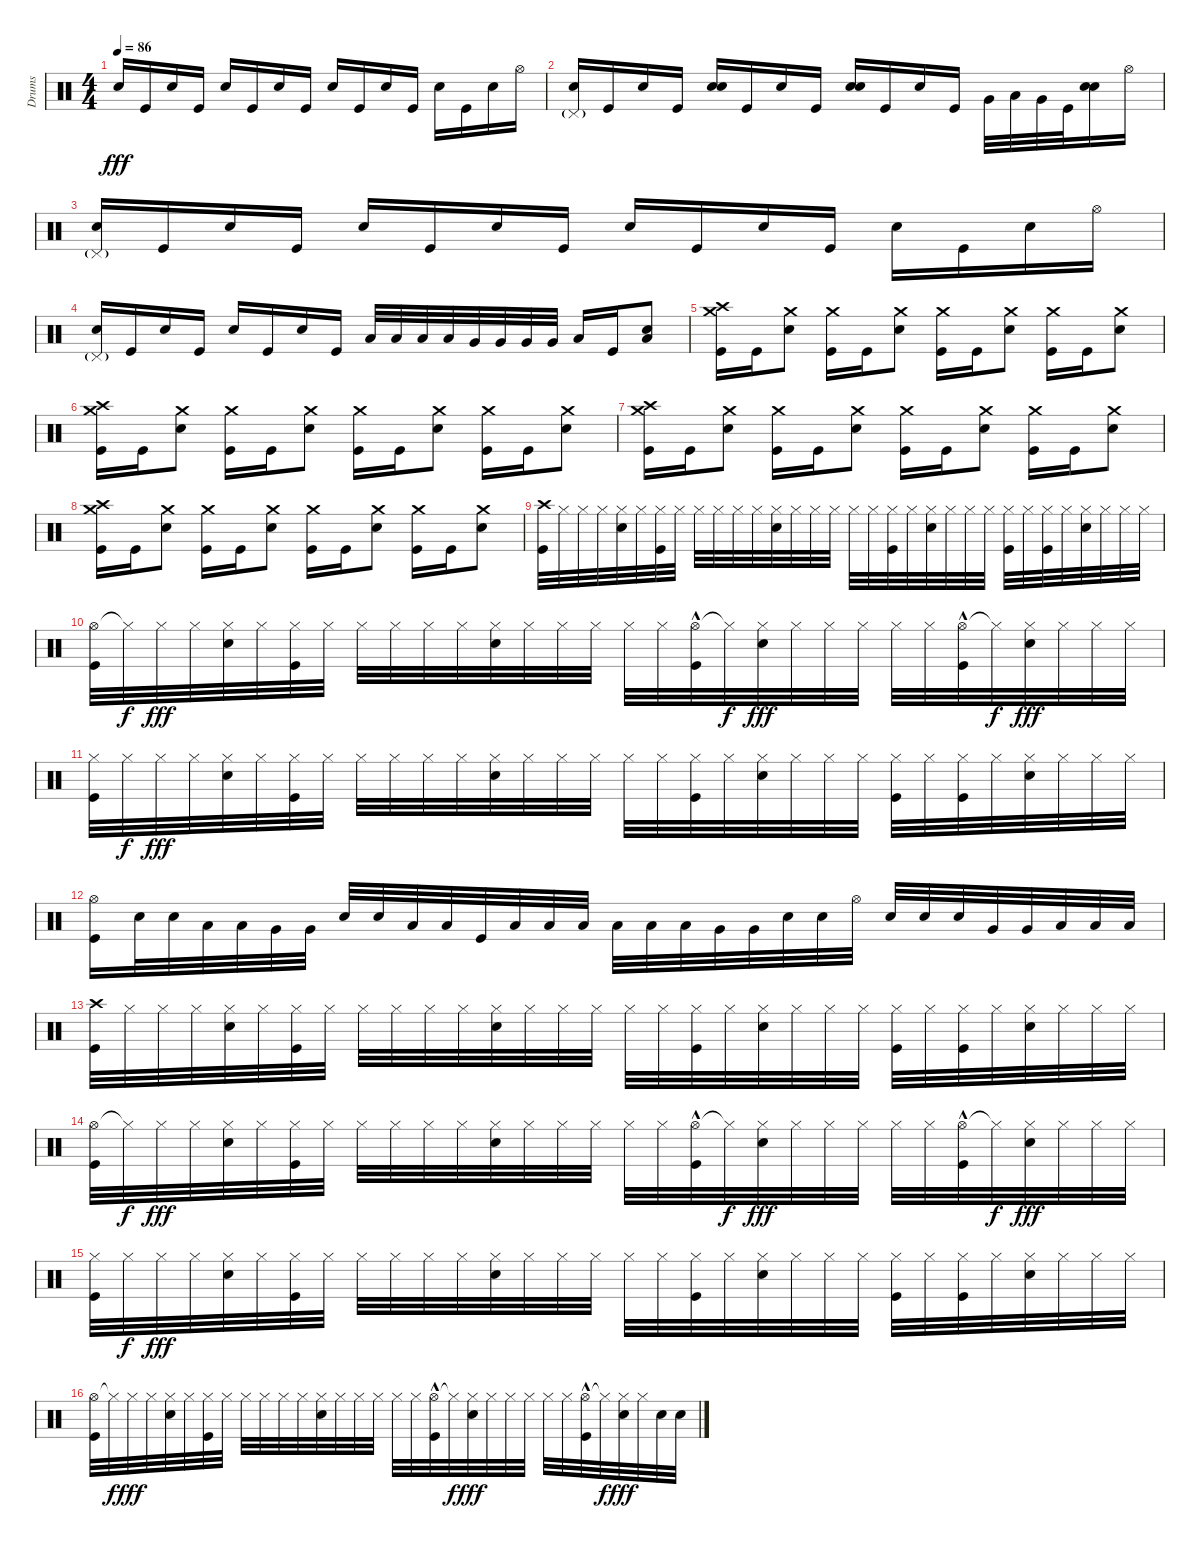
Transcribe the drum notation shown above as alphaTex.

\track ("Drums" "Drums") {instrument percussion}
\staff {score}
\articulation defaults
\ts (4 4)
\tempo 86
\clef neutral
\ks c "Electric Snare (hit)".16{dy fff} "Kick (hit)".16 "Electric Snare (hit)".16 "Kick (hit)".16 "Electric Snare (hit)".16 "Kick (hit)".16 "Electric Snare (hit)".16 "Kick (hit)".16 "Electric Snare (hit)".16 "Kick (hit)".16 "Electric Snare (hit)".16 "Kick (hit)".16 "Electric Snare (hit)".16 "Kick (hit)".16 "Electric Snare (hit)".16 "Hi-Hat (open)".16
|
("Pedal Hi-Hat (hit)"{g} "Electric Snare (hit)").16 "Kick (hit)".16 "Electric Snare (hit)".16 "Kick (hit)".16 ("Electric Snare (hit)" "Electric Snare (hit)").16 "Kick (hit)".16 "Electric Snare (hit)".16 "Kick (hit)".16 ("Electric Snare (hit)" "Electric Snare (hit)").16 "Kick (hit)".16 "Electric Snare (hit)".16 "Kick (hit)".16 "Very Low Tom (hit)".32 "Low Tom (hit)".32 "Very Low Tom (hit)".32 "Kick (hit)".32 ("Electric Snare (hit)" "Electric Snare (hit)").16 "Hi-Hat (open)".16 |
("Pedal Hi-Hat (hit)"{g} "Electric Snare (hit)").16 "Kick (hit)".16 "Electric Snare (hit)".16 "Kick (hit)".16 "Electric Snare (hit)".16 "Kick (hit)".16 "Electric Snare (hit)".16 "Kick (hit)".16 "Electric Snare (hit)".16 "Kick (hit)".16 "Electric Snare (hit)".16 "Kick (hit)".16 "Electric Snare (hit)".16 "Kick (hit)".16 "Electric Snare (hit)".16 "Hi-Hat (open)".16 |
("Pedal Hi-Hat (hit)"{g} "Electric Snare (hit)").16 "Kick (hit)".16 "Electric Snare (hit)".16 "Kick (hit)".16 "Electric Snare (hit)".16 "Kick (hit)".16 "Electric Snare (hit)".16 "Kick (hit)".16 "Low Tom (hit)".32 "Low Tom (hit)".32 "Low Tom (hit)".32 "Low Tom (hit)".32 "Very Low Tom (hit)".32 "Very Low Tom (hit)".32 "Very Low Tom (hit)".32 "Very Low Tom (hit)".32 "Low Floor Tom (hit)".16 "Kick (hit)".16 ("Low Floor Tom (hit)" "Electric Snare (hit)").8 |
("Crash high (hit)" "Crash medium (hit)" "Kick (hit)").16 "Kick (hit)".16 ("Crash medium (hit)" "Electric Snare (hit)").8 ("Crash medium (hit)" "Kick (hit)").16 "Kick (hit)".16 ("Crash medium (hit)" "Electric Snare (hit)").8 ("Crash medium (hit)" "Kick (hit)").16 "Kick (hit)".16 ("Crash medium (hit)" "Electric Snare (hit)").8 ("Crash medium (hit)" "Kick (hit)").16 "Kick (hit)".16 ("Crash medium (hit)" "Electric Snare (hit)").8 |
("Crash high (hit)" "Crash medium (hit)" "Kick (hit)").16 "Kick (hit)".16 ("Crash medium (hit)" "Electric Snare (hit)").8 ("Crash medium (hit)" "Kick (hit)").16 "Kick (hit)".16 ("Crash medium (hit)" "Electric Snare (hit)").8 ("Crash medium (hit)" "Kick (hit)").16 "Kick (hit)".16 ("Crash medium (hit)" "Electric Snare (hit)").8 ("Crash medium (hit)" "Kick (hit)").16 "Kick (hit)".16 ("Crash medium (hit)" "Electric Snare (hit)").8 |
("Crash high (hit)" "Crash medium (hit)" "Kick (hit)").16 "Kick (hit)".16 ("Crash medium (hit)" "Electric Snare (hit)").8 ("Crash medium (hit)" "Kick (hit)").16 "Kick (hit)".16 ("Crash medium (hit)" "Electric Snare (hit)").8 ("Crash medium (hit)" "Kick (hit)").16 "Kick (hit)".16 ("Crash medium (hit)" "Electric Snare (hit)").8 ("Crash medium (hit)" "Kick (hit)").16 "Kick (hit)".16 ("Crash medium (hit)" "Electric Snare (hit)").8 |
("Crash high (hit)" "Crash medium (hit)" "Kick (hit)").16 "Kick (hit)".16 ("Crash medium (hit)" "Electric Snare (hit)").8 ("Crash medium (hit)" "Kick (hit)").16 "Kick (hit)".16 ("Crash medium (hit)" "Electric Snare (hit)").8 ("Crash medium (hit)" "Kick (hit)").16 "Kick (hit)".16 ("Crash medium (hit)" "Electric Snare (hit)").8 ("Crash medium (hit)" "Kick (hit)").16 "Kick (hit)".16 ("Crash medium (hit)" "Electric Snare (hit)").8 |
("Crash high (hit)" "Kick (hit)").32 "Hi-Hat (closed)".32 "Hi-Hat (closed)".32 "Hi-Hat (closed)".32 ("Hi-Hat (closed)" "Electric Snare (hit)").32 "Hi-Hat (closed)".32 ("Hi-Hat (closed)" "Kick (hit)").32 "Hi-Hat (closed)".32 "Hi-Hat (closed)".32 "Hi-Hat (closed)".32 "Hi-Hat (closed)".32 "Hi-Hat (closed)".32 ("Hi-Hat (closed)" "Electric Snare (hit)").32 "Hi-Hat (closed)".32 "Hi-Hat (closed)".32 "Hi-Hat (closed)".32 "Hi-Hat (closed)".32 "Hi-Hat (closed)".32 ("Hi-Hat (closed)" "Kick (hit)").32 "Hi-Hat (closed)".32 ("Hi-Hat (closed)" "Electric Snare (hit)").32 "Hi-Hat (closed)".32 "Hi-Hat (closed)".32 "Hi-Hat (closed)".32 ("Hi-Hat (closed)" "Kick (hit)").32 "Hi-Hat (closed)".32 ("Hi-Hat (closed)" "Kick (hit)").32 "Hi-Hat (closed)".32 ("Hi-Hat (closed)" "Electric Snare (hit)").32 "Hi-Hat (closed)".32 "Hi-Hat (closed)".32 "Hi-Hat (closed)".32 |
("Hi-Hat (open)" "Kick (hit)").32 "Hi-Hat (closed)"{t}.32{dy f} "Hi-Hat (closed)".32{dy fff} "Hi-Hat (closed)".32 ("Hi-Hat (closed)" "Electric Snare (hit)").32 "Hi-Hat (closed)".32 ("Hi-Hat (closed)" "Kick (hit)").32 "Hi-Hat (closed)".32 "Hi-Hat (closed)".32 "Hi-Hat (closed)".32 "Hi-Hat (closed)".32 "Hi-Hat (closed)".32 ("Hi-Hat (closed)" "Electric Snare (hit)").32 "Hi-Hat (closed)".32 "Hi-Hat (closed)".32 "Hi-Hat (closed)".32 "Hi-Hat (closed)".32 "Hi-Hat (closed)".32 ("Hi-Hat (open)"{hac} "Kick (hit)").32 "Hi-Hat (closed)"{t}.32{dy f} ("Hi-Hat (closed)" "Electric Snare (hit)").32{dy fff} "Hi-Hat (closed)".32 "Hi-Hat (closed)".32 "Hi-Hat (closed)".32 "Hi-Hat (closed)".32 "Hi-Hat (closed)".32 ("Hi-Hat (open)"{hac} "Kick (hit)").32 "Hi-Hat (closed)"{t}.32{dy f} ("Hi-Hat (closed)" "Electric Snare (hit)").32{dy fff} "Hi-Hat (closed)".32 "Hi-Hat (closed)".32 "Hi-Hat (closed)".32 |
("Hi-Hat (closed)" "Kick (hit)").32 "Hi-Hat (closed)".32{dy f} "Hi-Hat (closed)".32{dy fff} "Hi-Hat (closed)".32 ("Hi-Hat (closed)" "Electric Snare (hit)").32 "Hi-Hat (closed)".32 ("Hi-Hat (closed)" "Kick (hit)").32 "Hi-Hat (closed)".32 "Hi-Hat (closed)".32 "Hi-Hat (closed)".32 "Hi-Hat (closed)".32 "Hi-Hat (closed)".32 ("Hi-Hat (closed)" "Electric Snare (hit)").32 "Hi-Hat (closed)".32 "Hi-Hat (closed)".32 "Hi-Hat (closed)".32 "Hi-Hat (closed)".32 "Hi-Hat (closed)".32 ("Hi-Hat (closed)" "Kick (hit)").32 "Hi-Hat (closed)".32 ("Hi-Hat (closed)" "Electric Snare (hit)").32 "Hi-Hat (closed)".32 "Hi-Hat (closed)".32 "Hi-Hat (closed)".32 ("Hi-Hat (closed)" "Kick (hit)").32 "Hi-Hat (closed)".32 ("Hi-Hat (closed)" "Kick (hit)").32 "Hi-Hat (closed)".32 ("Hi-Hat (closed)" "Electric Snare (hit)").32 "Hi-Hat (closed)".32 "Hi-Hat (closed)".32 "Hi-Hat (closed)".32 |
("Hi-Hat (open)" "Kick (hit)").16 "Electric Snare (hit)".32 "Electric Snare (hit)".32 "Low Tom (hit)".32 "Low Tom (hit)".32 "Very Low Tom (hit)".32 "Very Low Tom (hit)".32 "Electric Snare (hit)".32 "Electric Snare (hit)".32 "Low Tom (hit)".32 "Low Tom (hit)".32 "Kick (hit)".32 "Low Tom (hit)".32 "Low Tom (hit)".32 "Low Floor Tom (hit)".32 "Low Floor Tom (hit)".32 "Low Floor Tom (hit)".32 "Low Floor Tom (hit)".32 "Very Low Tom (hit)".32 "Very Low Tom (hit)".32 "Electric Snare (hit)".32 "Electric Snare (hit)".32 "Hi-Hat (open)".32 "Electric Snare (hit)".32 "Electric Snare (hit)".32 "Electric Snare (hit)".32 "Very Low Tom (hit)".32 "Very Low Tom (hit)".32 "Low Floor Tom (hit)".32 "Low Floor Tom (hit)".32 "Low Floor Tom (hit)".32 |
("Crash high (hit)" "Kick (hit)").32 "Hi-Hat (closed)".32 "Hi-Hat (closed)".32 "Hi-Hat (closed)".32 ("Hi-Hat (closed)" "Electric Snare (hit)").32 "Hi-Hat (closed)".32 ("Hi-Hat (closed)" "Kick (hit)").32 "Hi-Hat (closed)".32 "Hi-Hat (closed)".32 "Hi-Hat (closed)".32 "Hi-Hat (closed)".32 "Hi-Hat (closed)".32 ("Hi-Hat (closed)" "Electric Snare (hit)").32 "Hi-Hat (closed)".32 "Hi-Hat (closed)".32 "Hi-Hat (closed)".32 "Hi-Hat (closed)".32 "Hi-Hat (closed)".32 ("Hi-Hat (closed)" "Kick (hit)").32 "Hi-Hat (closed)".32 ("Hi-Hat (closed)" "Electric Snare (hit)").32 "Hi-Hat (closed)".32 "Hi-Hat (closed)".32 "Hi-Hat (closed)".32 ("Hi-Hat (closed)" "Kick (hit)").32 "Hi-Hat (closed)".32 ("Hi-Hat (closed)" "Kick (hit)").32 "Hi-Hat (closed)".32 ("Hi-Hat (closed)" "Electric Snare (hit)").32 "Hi-Hat (closed)".32 "Hi-Hat (closed)".32 "Hi-Hat (closed)".32 |
("Hi-Hat (open)" "Kick (hit)").32 "Hi-Hat (closed)"{t}.32{dy f} "Hi-Hat (closed)".32{dy fff} "Hi-Hat (closed)".32 ("Hi-Hat (closed)" "Electric Snare (hit)").32 "Hi-Hat (closed)".32 ("Hi-Hat (closed)" "Kick (hit)").32 "Hi-Hat (closed)".32 "Hi-Hat (closed)".32 "Hi-Hat (closed)".32 "Hi-Hat (closed)".32 "Hi-Hat (closed)".32 ("Hi-Hat (closed)" "Electric Snare (hit)").32 "Hi-Hat (closed)".32 "Hi-Hat (closed)".32 "Hi-Hat (closed)".32 "Hi-Hat (closed)".32 "Hi-Hat (closed)".32 ("Hi-Hat (open)"{hac} "Kick (hit)").32 "Hi-Hat (closed)"{t}.32{dy f} ("Hi-Hat (closed)" "Electric Snare (hit)").32{dy fff} "Hi-Hat (closed)".32 "Hi-Hat (closed)".32 "Hi-Hat (closed)".32 "Hi-Hat (closed)".32 "Hi-Hat (closed)".32 ("Hi-Hat (open)"{hac} "Kick (hit)").32 "Hi-Hat (closed)"{t}.32{dy f} ("Hi-Hat (closed)" "Electric Snare (hit)").32{dy fff} "Hi-Hat (closed)".32 "Hi-Hat (closed)".32 "Hi-Hat (closed)".32 |
("Hi-Hat (closed)" "Kick (hit)").32 "Hi-Hat (closed)".32{dy f} "Hi-Hat (closed)".32{dy fff} "Hi-Hat (closed)".32 ("Hi-Hat (closed)" "Electric Snare (hit)").32 "Hi-Hat (closed)".32 ("Hi-Hat (closed)" "Kick (hit)").32 "Hi-Hat (closed)".32 "Hi-Hat (closed)".32 "Hi-Hat (closed)".32 "Hi-Hat (closed)".32 "Hi-Hat (closed)".32 ("Hi-Hat (closed)" "Electric Snare (hit)").32 "Hi-Hat (closed)".32 "Hi-Hat (closed)".32 "Hi-Hat (closed)".32 "Hi-Hat (closed)".32 "Hi-Hat (closed)".32 ("Hi-Hat (closed)" "Kick (hit)").32 "Hi-Hat (closed)".32 ("Hi-Hat (closed)" "Electric Snare (hit)").32 "Hi-Hat (closed)".32 "Hi-Hat (closed)".32 "Hi-Hat (closed)".32 ("Hi-Hat (closed)" "Kick (hit)").32 "Hi-Hat (closed)".32 ("Hi-Hat (closed)" "Kick (hit)").32 "Hi-Hat (closed)".32 ("Hi-Hat (closed)" "Electric Snare (hit)").32 "Hi-Hat (closed)".32 "Hi-Hat (closed)".32 "Hi-Hat (closed)".32 |
("Hi-Hat (open)" "Kick (hit)").32 "Hi-Hat (closed)"{t}.32{dy f} "Hi-Hat (closed)".32{dy fff} "Hi-Hat (closed)".32 ("Hi-Hat (closed)" "Electric Snare (hit)").32 "Hi-Hat (closed)".32 ("Hi-Hat (closed)" "Kick (hit)").32 "Hi-Hat (closed)".32 "Hi-Hat (closed)".32 "Hi-Hat (closed)".32 "Hi-Hat (closed)".32 "Hi-Hat (closed)".32 ("Hi-Hat (closed)" "Electric Snare (hit)").32 "Hi-Hat (closed)".32 "Hi-Hat (closed)".32 "Hi-Hat (closed)".32 "Hi-Hat (closed)".32 "Hi-Hat (closed)".32 ("Hi-Hat (open)"{hac} "Kick (hit)").32 "Hi-Hat (closed)"{t}.32{dy f} ("Hi-Hat (closed)" "Electric Snare (hit)").32{dy fff} "Hi-Hat (closed)".32 "Hi-Hat (closed)".32 "Hi-Hat (closed)".32 "Hi-Hat (closed)".32 "Hi-Hat (closed)".32 ("Hi-Hat (open)"{hac} "Kick (hit)").32 "Hi-Hat (closed)"{t}.32{dy f} ("Hi-Hat (closed)" "Electric Snare (hit)").32{dy fff} "Hi-Hat (closed)".32 "Electric Snare (hit)".32 "Electric Snare (hit)".32
